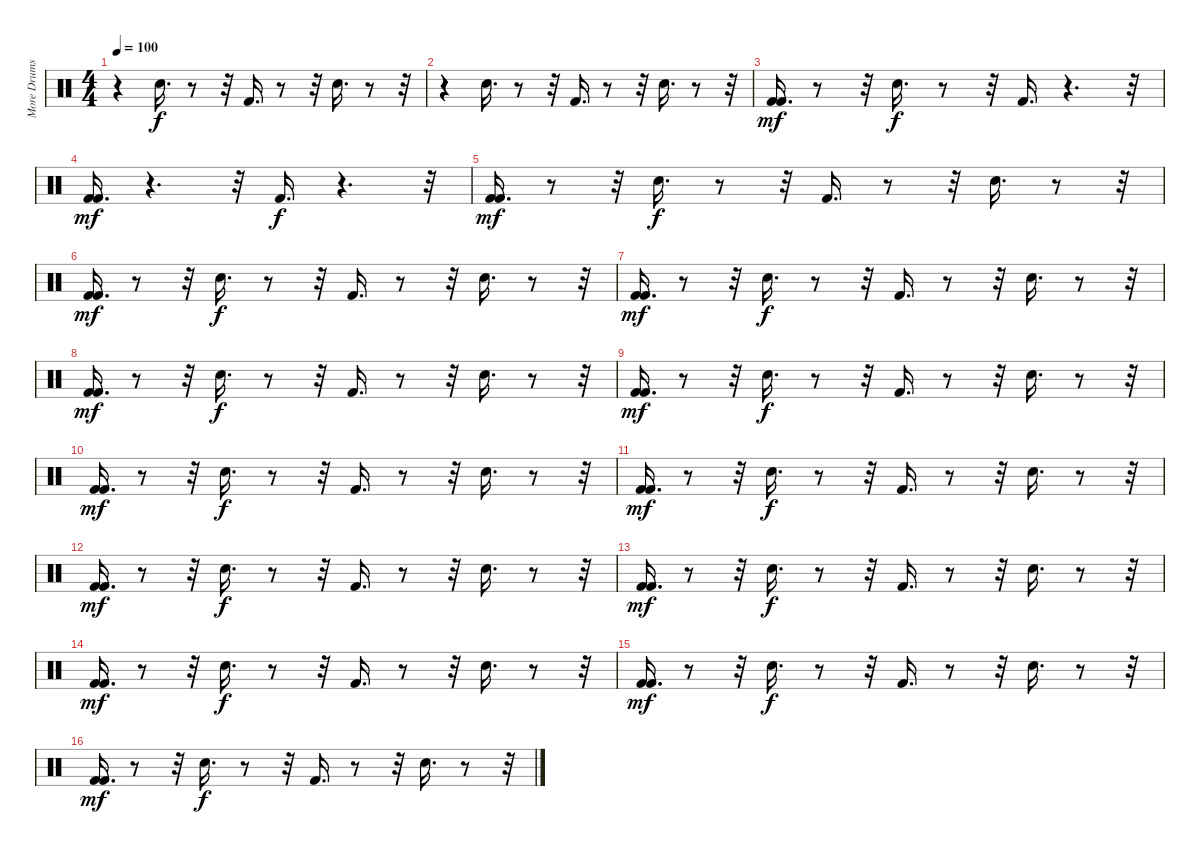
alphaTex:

\track ("More Drums" "More Drums") {instrument percussion}
\staff {score}
\articulation defaults
\ts (4 4)
\tempo 100
\clef neutral
\ks c
r.4{dy f} "Electric Snare (hit)".16{d} r.8 r.32 "Kick (hit) 2".16{d} r.8 r.32 "Electric Snare (hit)".16{d} r.8 r.32 |
r.4 "Electric Snare (hit)".16{d} r.8 r.32 "Kick (hit) 2".16{d} r.8 r.32 "Electric Snare (hit)".16{d} r.8 r.32 |
("Kick (hit) 2" "Kick (hit) 2").16{d dy mf} r.8 r.32 "Electric Snare (hit)".16{d dy f} r.8 r.32 "Kick (hit) 2".16{d} r.4{d} r.32 |
("Kick (hit) 2" "Kick (hit) 2").16{d dy mf} r.4{d} r.32 "Kick (hit) 2".16{d dy f} r.4{d} r.32 |
("Kick (hit) 2" "Kick (hit) 2").16{d dy mf} r.8 r.32 "Electric Snare (hit)".16{d dy f} r.8 r.32 "Kick (hit) 2".16{d} r.8 r.32 "Electric Snare (hit)".16{d} r.8 r.32 |
("Kick (hit) 2" "Kick (hit) 2").16{d dy mf} r.8 r.32 "Electric Snare (hit)".16{d dy f} r.8 r.32 "Kick (hit) 2".16{d} r.8 r.32 "Electric Snare (hit)".16{d} r.8 r.32 |
("Kick (hit) 2" "Kick (hit) 2").16{d dy mf} r.8 r.32 "Electric Snare (hit)".16{d dy f} r.8 r.32 "Kick (hit) 2".16{d} r.8 r.32 "Electric Snare (hit)".16{d} r.8 r.32 |
("Kick (hit) 2" "Kick (hit) 2").16{d dy mf} r.8 r.32 "Electric Snare (hit)".16{d dy f} r.8 r.32 "Kick (hit) 2".16{d} r.8 r.32 "Electric Snare (hit)".16{d} r.8 r.32 |
("Kick (hit) 2" "Kick (hit) 2").16{d dy mf} r.8 r.32 "Electric Snare (hit)".16{d dy f} r.8 r.32 "Kick (hit) 2".16{d} r.8 r.32 "Electric Snare (hit)".16{d} r.8 r.32 |
("Kick (hit) 2" "Kick (hit) 2").16{d dy mf} r.8 r.32 "Electric Snare (hit)".16{d dy f} r.8 r.32 "Kick (hit) 2".16{d} r.8 r.32 "Electric Snare (hit)".16{d} r.8 r.32 |
("Kick (hit) 2" "Kick (hit) 2").16{d dy mf} r.8 r.32 "Electric Snare (hit)".16{d dy f} r.8 r.32 "Kick (hit) 2".16{d} r.8 r.32 "Electric Snare (hit)".16{d} r.8 r.32 |
("Kick (hit) 2" "Kick (hit) 2").16{d dy mf} r.8 r.32 "Electric Snare (hit)".16{d dy f} r.8 r.32 "Kick (hit) 2".16{d} r.8 r.32 "Electric Snare (hit)".16{d} r.8 r.32 |
("Kick (hit) 2" "Kick (hit) 2").16{d dy mf} r.8 r.32 "Electric Snare (hit)".16{d dy f} r.8 r.32 "Kick (hit) 2".16{d} r.8 r.32 "Electric Snare (hit)".16{d} r.8 r.32 |
("Kick (hit) 2" "Kick (hit) 2").16{d dy mf} r.8 r.32 "Electric Snare (hit)".16{d dy f} r.8 r.32 "Kick (hit) 2".16{d} r.8 r.32 "Electric Snare (hit)".16{d} r.8 r.32 |
("Kick (hit) 2" "Kick (hit) 2").16{d dy mf} r.8 r.32 "Electric Snare (hit)".16{d dy f} r.8 r.32 "Kick (hit) 2".16{d} r.8 r.32 "Electric Snare (hit)".16{d} r.8 r.32 |
("Kick (hit) 2" "Kick (hit) 2").16{d dy mf} r.8 r.32 "Electric Snare (hit)".16{d dy f} r.8 r.32 "Kick (hit) 2".16{d} r.8 r.32 "Electric Snare (hit)".16{d} r.8 r.32
